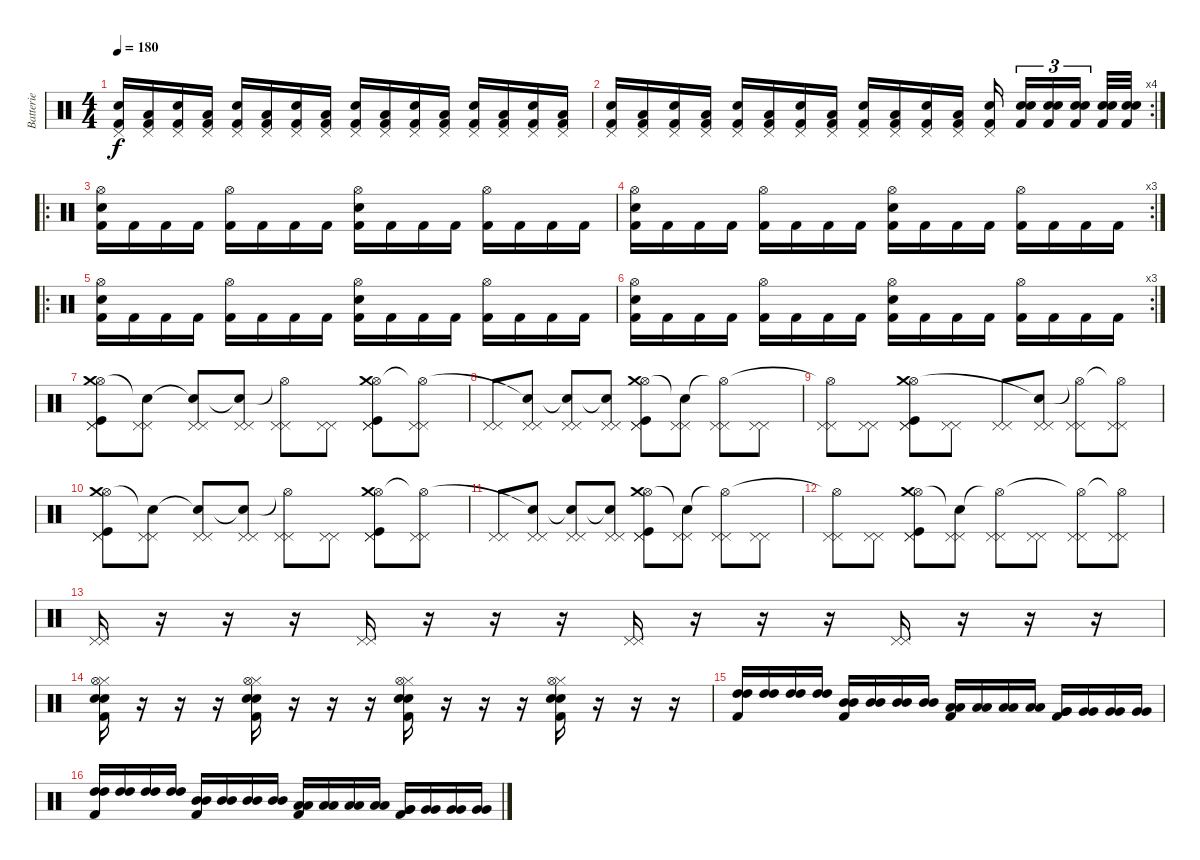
\track ("Batterie" "Batterie") {instrument percussion}
\staff {score}
\articulation defaults
\ts (4 4)
\tempo 180
\clef neutral
\ks c
("Pedal Hi-Hat (hit)" "Electric Snare (hit)" "Kick (hit) 2").16{dy f} ("Pedal Hi-Hat (hit)" "Low Tom (hit)" "Kick (hit) 2").16 ("Pedal Hi-Hat (hit)" "Electric Snare (hit)" "Kick (hit) 2").16 ("Pedal Hi-Hat (hit)" "Low Tom (hit)" "Kick (hit) 2").16 ("Pedal Hi-Hat (hit)" "Electric Snare (hit)" "Kick (hit) 2").16 ("Pedal Hi-Hat (hit)" "Low Tom (hit)" "Kick (hit) 2").16 ("Pedal Hi-Hat (hit)" "Electric Snare (hit)" "Kick (hit) 2").16 ("Pedal Hi-Hat (hit)" "Low Tom (hit)" "Kick (hit) 2").16 ("Pedal Hi-Hat (hit)" "Electric Snare (hit)" "Kick (hit) 2").16 ("Pedal Hi-Hat (hit)" "Low Tom (hit)" "Kick (hit) 2").16 ("Pedal Hi-Hat (hit)" "Electric Snare (hit)" "Kick (hit) 2").16 ("Pedal Hi-Hat (hit)" "Low Tom (hit)" "Kick (hit) 2").16 ("Pedal Hi-Hat (hit)" "Electric Snare (hit)" "Kick (hit) 2").16 ("Pedal Hi-Hat (hit)" "Low Tom (hit)" "Kick (hit) 2").16 ("Pedal Hi-Hat (hit)" "Electric Snare (hit)" "Kick (hit) 2").16 ("Pedal Hi-Hat (hit)" "Low Tom (hit)" "Kick (hit) 2").16 |
\rc 4
("Pedal Hi-Hat (hit)" "Electric Snare (hit)" "Kick (hit) 2").16 ("Pedal Hi-Hat (hit)" "Low Tom (hit)" "Kick (hit) 2").16 ("Pedal Hi-Hat (hit)" "Electric Snare (hit)" "Kick (hit) 2").16 ("Pedal Hi-Hat (hit)" "Low Tom (hit)" "Kick (hit) 2").16 ("Pedal Hi-Hat (hit)" "Electric Snare (hit)" "Kick (hit) 2").16 ("Pedal Hi-Hat (hit)" "Low Tom (hit)" "Kick (hit) 2").16 ("Pedal Hi-Hat (hit)" "Electric Snare (hit)" "Kick (hit) 2").16 ("Pedal Hi-Hat (hit)" "Low Tom (hit)" "Kick (hit) 2").16 ("Pedal Hi-Hat (hit)" "Electric Snare (hit)" "Kick (hit) 2").16 ("Pedal Hi-Hat (hit)" "Low Tom (hit)" "Kick (hit) 2").16 ("Pedal Hi-Hat (hit)" "Electric Snare (hit)" "Kick (hit) 2").16 ("Pedal Hi-Hat (hit)" "Low Tom (hit)" "Kick (hit) 2").16 ("Pedal Hi-Hat (hit)" "Electric Snare (hit)" "Kick (hit) 2").16 ("Electric Snare (hit)" "Electric Snare (hit)" "Kick (hit) 2").16{tu (3 2)} ("Electric Snare (hit)" "Electric Snare (hit)" "Kick (hit) 2").16{tu (3 2)} ("Electric Snare (hit)" "Electric Snare (hit)" "Kick (hit) 2").16{tu (3 2)} ("Electric Snare (hit)" "Electric Snare (hit)" "Kick (hit) 2").32 ("Electric Snare (hit)" "Electric Snare (hit)" "Kick (hit) 2").32 |
\ro
("Hi-Hat (open)" "Electric Snare (hit)" "Kick (hit) 2").16 "Kick (hit) 2".16 "Kick (hit) 2".16 "Kick (hit) 2".16 ("Hi-Hat (open)" "Kick (hit) 2").16 "Kick (hit) 2".16 "Kick (hit) 2".16 "Kick (hit) 2".16 ("Hi-Hat (open)" "Electric Snare (hit)" "Kick (hit) 2").16 "Kick (hit) 2".16 "Kick (hit) 2".16 "Kick (hit) 2".16 ("Hi-Hat (open)" "Kick (hit) 2").16 "Kick (hit) 2".16 "Kick (hit) 2".16 "Kick (hit) 2".16 |
\rc 3
("Hi-Hat (open)" "Electric Snare (hit)" "Kick (hit) 2").16 "Kick (hit) 2".16 "Kick (hit) 2".16 "Kick (hit) 2".16 ("Hi-Hat (open)" "Kick (hit) 2").16 "Kick (hit) 2".16 "Kick (hit) 2".16 "Kick (hit) 2".16 ("Hi-Hat (open)" "Electric Snare (hit)" "Kick (hit) 2").16 "Kick (hit) 2".16 "Kick (hit) 2".16 "Kick (hit) 2".16 ("Hi-Hat (open)" "Kick (hit) 2").16 "Kick (hit) 2".16 "Kick (hit) 2".16 "Kick (hit) 2".16 |
\ro
("Hi-Hat (open)" "Electric Snare (hit)" "Kick (hit) 2").16 "Kick (hit) 2".16 "Kick (hit) 2".16 "Kick (hit) 2".16 ("Hi-Hat (open)" "Kick (hit) 2").16 "Kick (hit) 2".16 "Kick (hit) 2".16 "Kick (hit) 2".16 ("Hi-Hat (open)" "Electric Snare (hit)" "Kick (hit) 2").16 "Kick (hit) 2".16 "Kick (hit) 2".16 "Kick (hit) 2".16 ("Hi-Hat (open)" "Kick (hit) 2").16 "Kick (hit) 2".16 "Kick (hit) 2".16 "Kick (hit) 2".16 |
\rc 3
("Hi-Hat (open)" "Electric Snare (hit)" "Kick (hit) 2").16 "Kick (hit) 2".16 "Kick (hit) 2".16 "Kick (hit) 2".16 ("Hi-Hat (open)" "Kick (hit) 2").16 "Kick (hit) 2".16 "Kick (hit) 2".16 "Kick (hit) 2".16 ("Hi-Hat (open)" "Electric Snare (hit)" "Kick (hit) 2").16 "Kick (hit) 2".16 "Kick (hit) 2".16 "Kick (hit) 2".16 ("Hi-Hat (open)" "Kick (hit) 2").16 "Kick (hit) 2".16 "Kick (hit) 2".16 "Kick (hit) 2".16 |
("Pedal Hi-Hat (hit)" "Pedal Hi-Hat (hit)" "Hi-Hat (open)" "Kick (hit)" "Crash medium (hit)").8 ("Pedal Hi-Hat (hit)" "Pedal Hi-Hat (hit)" "Snare (hit)"{t}).8 ("Pedal Hi-Hat (hit)" "Pedal Hi-Hat (hit)" "Snare (hit)"{t}).8 ("Pedal Hi-Hat (hit)" "Pedal Hi-Hat (hit)" "Snare (hit)"{t}).8 ("Pedal Hi-Hat (hit)" "Pedal Hi-Hat (hit)" "Hi-Hat (open)"{t}).8 ("Pedal Hi-Hat (hit)" "Pedal Hi-Hat (hit)").8 ("Pedal Hi-Hat (hit)" "Pedal Hi-Hat (hit)" "Hi-Hat (open)" "Kick (hit)" "Crash medium (hit)").8 ("Pedal Hi-Hat (hit)" "Pedal Hi-Hat (hit)" "Hi-Hat (open)"{t}).8 |
("Pedal Hi-Hat (hit)" "Pedal Hi-Hat (hit)").8 ("Pedal Hi-Hat (hit)" "Pedal Hi-Hat (hit)" "Snare (hit)"{t}).8 ("Pedal Hi-Hat (hit)" "Pedal Hi-Hat (hit)" "Snare (hit)"{t}).8 ("Pedal Hi-Hat (hit)" "Pedal Hi-Hat (hit)" "Snare (hit)"{t}).8 ("Pedal Hi-Hat (hit)" "Pedal Hi-Hat (hit)" "Hi-Hat (open)" "Kick (hit)" "Crash medium (hit)").8 ("Pedal Hi-Hat (hit)" "Pedal Hi-Hat (hit)" "Snare (hit)"{t}).8 ("Pedal Hi-Hat (hit)" "Pedal Hi-Hat (hit)" "Hi-Hat (open)"{t}).8 ("Pedal Hi-Hat (hit)" "Pedal Hi-Hat (hit)").8 |
("Pedal Hi-Hat (hit)" "Pedal Hi-Hat (hit)" "Hi-Hat (open)"{t}).8 ("Pedal Hi-Hat (hit)" "Pedal Hi-Hat (hit)").8 ("Pedal Hi-Hat (hit)" "Pedal Hi-Hat (hit)" "Hi-Hat (open)" "Kick (hit)" "Crash medium (hit)").8 ("Pedal Hi-Hat (hit)" "Pedal Hi-Hat (hit)").8 ("Pedal Hi-Hat (hit)" "Pedal Hi-Hat (hit)").8 ("Pedal Hi-Hat (hit)" "Pedal Hi-Hat (hit)" "Snare (hit)"{t}).8 ("Pedal Hi-Hat (hit)" "Pedal Hi-Hat (hit)" "Hi-Hat (open)"{t}).8 ("Pedal Hi-Hat (hit)" "Pedal Hi-Hat (hit)" "Hi-Hat (open)"{t}).8 |
("Pedal Hi-Hat (hit)" "Pedal Hi-Hat (hit)" "Hi-Hat (open)" "Kick (hit)" "Crash medium (hit)").8 ("Pedal Hi-Hat (hit)" "Pedal Hi-Hat (hit)" "Snare (hit)"{t}).8 ("Pedal Hi-Hat (hit)" "Pedal Hi-Hat (hit)" "Snare (hit)"{t}).8 ("Pedal Hi-Hat (hit)" "Pedal Hi-Hat (hit)" "Snare (hit)"{t}).8 ("Pedal Hi-Hat (hit)" "Pedal Hi-Hat (hit)" "Hi-Hat (open)"{t}).8 ("Pedal Hi-Hat (hit)" "Pedal Hi-Hat (hit)").8 ("Pedal Hi-Hat (hit)" "Pedal Hi-Hat (hit)" "Hi-Hat (open)" "Kick (hit)" "Crash medium (hit)").8 ("Pedal Hi-Hat (hit)" "Pedal Hi-Hat (hit)" "Hi-Hat (open)"{t}).8 |
("Pedal Hi-Hat (hit)" "Pedal Hi-Hat (hit)").8 ("Pedal Hi-Hat (hit)" "Pedal Hi-Hat (hit)" "Snare (hit)"{t}).8 ("Pedal Hi-Hat (hit)" "Pedal Hi-Hat (hit)" "Snare (hit)"{t}).8 ("Pedal Hi-Hat (hit)" "Pedal Hi-Hat (hit)" "Snare (hit)"{t}).8 ("Pedal Hi-Hat (hit)" "Pedal Hi-Hat (hit)" "Hi-Hat (open)" "Kick (hit)" "Crash medium (hit)").8 ("Pedal Hi-Hat (hit)" "Pedal Hi-Hat (hit)" "Snare (hit)"{t}).8 ("Pedal Hi-Hat (hit)" "Pedal Hi-Hat (hit)" "Hi-Hat (open)"{t}).8 ("Pedal Hi-Hat (hit)" "Pedal Hi-Hat (hit)").8 |
("Pedal Hi-Hat (hit)" "Pedal Hi-Hat (hit)" "Hi-Hat (open)"{t}).8 ("Pedal Hi-Hat (hit)" "Pedal Hi-Hat (hit)").8 ("Pedal Hi-Hat (hit)" "Pedal Hi-Hat (hit)" "Hi-Hat (open)" "Kick (hit)" "Crash medium (hit)").8 ("Pedal Hi-Hat (hit)" "Pedal Hi-Hat (hit)" "Snare (hit)"{t}).8 ("Pedal Hi-Hat (hit)" "Pedal Hi-Hat (hit)" "Hi-Hat (open)"{t}).8 ("Pedal Hi-Hat (hit)" "Pedal Hi-Hat (hit)").8 ("Pedal Hi-Hat (hit)" "Pedal Hi-Hat (hit)" "Hi-Hat (open)"{t}).8 ("Pedal Hi-Hat (hit)" "Pedal Hi-Hat (hit)" "Hi-Hat (open)"{t}).8 |
("Pedal Hi-Hat (hit)" "Pedal Hi-Hat (hit)").16 r.16 r.16 r.16 ("Pedal Hi-Hat (hit)" "Pedal Hi-Hat (hit)").16 r.16 r.16 r.16 ("Pedal Hi-Hat (hit)" "Pedal Hi-Hat (hit)").16 r.16 r.16 r.16 ("Pedal Hi-Hat (hit)" "Pedal Hi-Hat (hit)").16 r.16 r.16 r.16 |
("Electric Snare (hit)" "Electric Snare (hit)" "Hi-Hat (closed)" "Hi-Hat (open)" "Kick (hit) 2").16 r.16 r.16 r.16 ("Electric Snare (hit)" "Electric Snare (hit)" "Hi-Hat (closed)" "Hi-Hat (open)" "Kick (hit) 2").16 r.16 r.16 r.16 ("Electric Snare (hit)" "Electric Snare (hit)" "Hi-Hat (closed)" "Hi-Hat (open)" "Kick (hit) 2").16 r.16 r.16 r.16 ("Electric Snare (hit)" "Electric Snare (hit)" "Hi-Hat (closed)" "Hi-Hat (open)" "Kick (hit) 2").16 r.16 r.16 r.16 |
("High Tom (hit)" "High Tom (hit)" "Kick (hit) 2").16 ("High Tom (hit)" "High Tom (hit)").16 ("High Tom (hit)" "High Tom (hit)").16 ("High Tom (hit)" "High Tom (hit)").16 ("Mid Tom (hit)" "Mid Tom (hit)" "Kick (hit) 2").16 ("Mid Tom (hit)" "Mid Tom (hit)").16 ("Mid Tom (hit)" "Mid Tom (hit)").16 ("Mid Tom (hit)" "Mid Tom (hit)").16 ("Low Tom (hit)" "Low Tom (hit)" "Kick (hit) 2").16 ("Low Tom (hit)" "Low Tom (hit)").16 ("Low Tom (hit)" "Low Tom (hit)").16 ("Low Tom (hit)" "Low Tom (hit)").16 ("Very Low Tom (hit)" "Very Low Tom (hit)" "Kick (hit) 2").16 ("Very Low Tom (hit)" "Very Low Tom (hit)").16 ("Very Low Tom (hit)" "Very Low Tom (hit)").16 ("Very Low Tom (hit)" "Very Low Tom (hit)").16 |
("High Tom (hit)" "High Tom (hit)" "Kick (hit) 2").16 ("High Tom (hit)" "High Tom (hit)").16 ("High Tom (hit)" "High Tom (hit)").16 ("High Tom (hit)" "High Tom (hit)").16 ("Mid Tom (hit)" "Mid Tom (hit)" "Kick (hit) 2").16 ("Mid Tom (hit)" "Mid Tom (hit)").16 ("Mid Tom (hit)" "Mid Tom (hit)").16 ("Mid Tom (hit)" "Mid Tom (hit)").16 ("Low Tom (hit)" "Low Tom (hit)" "Kick (hit) 2").16 ("Low Tom (hit)" "Low Tom (hit)").16 ("Low Tom (hit)" "Low Tom (hit)").16 ("Low Tom (hit)" "Low Tom (hit)").16 ("Very Low Tom (hit)" "Very Low Tom (hit)" "Kick (hit) 2").16 ("Very Low Tom (hit)" "Very Low Tom (hit)").16 ("Very Low Tom (hit)" "Very Low Tom (hit)").16 ("Very Low Tom (hit)" "Very Low Tom (hit)").16
